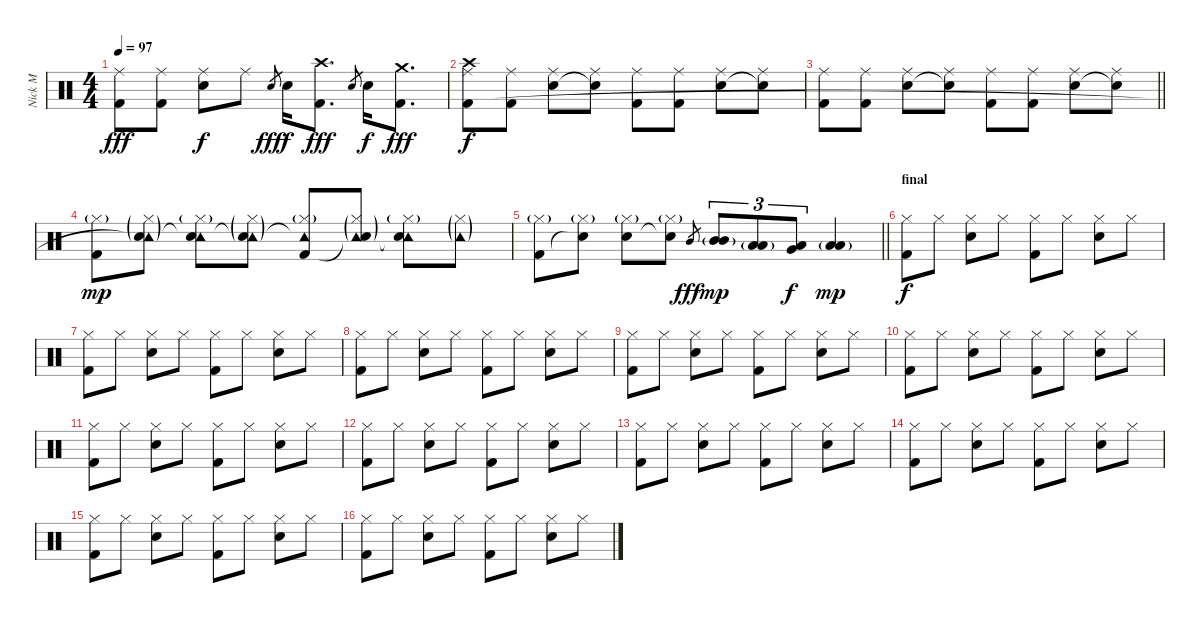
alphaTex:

\track ("Nick M" "Nick M") {instrument percussion}
\staff {score}
\articulation defaults
\ts (4 4)
\tempo 97
\clef neutral
\ks c
("Ride (middle)" "Kick (hit) 2").8{dy fff} ("Ride (middle)" "Kick (hit) 2").8 ("Ride (middle)" "Snare (hit) 2").8{dy f} "Ride (middle)".8 "Snare (hit) 2".8{gr dy fff} "Snare (hit) 2".16{dy f} ("Crash high (hit)" "Kick (hit) 2").8{d dy fff} "Snare (hit) 2".8{gr} "Snare (hit) 2".16{dy f} ("Crash medium (hit)" "Kick (hit) 2").8{d dy fff} |
("Ride (middle)" "Crash high (hit)" "Kick (hit) 2").8{dy f} ("Ride (middle)" "Kick (hit) 2").8 ("Ride (middle)" "Snare (hit) 2").8 ("Ride (middle)" "Snare (hit)"{t}).8 ("Ride (middle)" "Kick (hit) 2").8 ("Ride (middle)" "Kick (hit) 2").8 ("Ride (middle)" "Snare (hit) 2").8 ("Ride (middle)" "Snare (hit)"{t}).8 |
\barLineRight lightlight
("Ride (middle)" "Kick (hit) 2").8 ("Ride (middle)" "Kick (hit) 2").8 ("Ride (middle)" "Snare (hit) 2").8 ("Ride (middle)" "Snare (hit)"{t}).8 ("Ride (middle)" "Kick (hit) 2").8 ("Ride (middle)" "Kick (hit) 2").8 ("Ride (middle)" "Snare (hit) 2").8 ("Ride (middle)" "Snare (hit)"{t}).8 |
("Hi-Hat (closed)"{g} "Kick (hit) 2").8{dy mp} ("Hi-Hat (closed)"{g} "Tambourine (hit)"{g} "Snare (hit)"{t}).8 ("Hi-Hat (closed)"{g} "Tambourine (hit)"{t} "Snare (hit) 2").8 ("Hi-Hat (closed)"{g} "Tambourine (hit)"{g} "Snare (hit)"{t}).8 ("Hi-Hat (closed)"{g} "Tambourine (hit)"{t} "Kick (hit) 2").8 ("Hi-Hat (closed)"{g} "Tambourine (hit)"{g} "Snare (hit)"{t}).8 ("Hi-Hat (closed)"{g} "Tambourine (hit)"{t} "Snare (hit) 2").8 ("Hi-Hat (closed)"{g} "Tambourine (hit)"{g}).8 |
\barLineRight lightlight
("Hi-Hat (closed)"{g} "Kick (hit) 2").8 ("Hi-Hat (closed)"{g} "Snare (hit)"{t}).8 ("Hi-Hat (closed)"{g} "Snare (hit) 2").8 ("Hi-Hat (closed)"{g} "Snare (hit)"{t}).8 "Mid Tom (hit)".8{gr dy fff} ("Mid Tom (hit)" "Mid Tom (hit)"{g}).8{tu (3 2) dy mp} ("Low Tom (hit)" "Low Tom (hit)"{g}).8{tu (3 2)} ("Very Low Tom (hit)" "Low Tom (hit)").8{tu (3 2) dy f} ("Low Floor Tom (hit)" "Low Floor Tom (hit)"{g}).4{dy mp} |
\section ("" "final")
("Hi-Hat (closed)" "Kick (hit) 2").8{dy f} "Hi-Hat (closed)".8 ("Hi-Hat (closed)" "Snare (hit) 2").8 "Hi-Hat (closed)".8 ("Hi-Hat (closed)" "Kick (hit) 2").8 "Hi-Hat (closed)".8 ("Hi-Hat (closed)" "Snare (hit) 2").8 "Hi-Hat (closed)".8 |
("Hi-Hat (closed)" "Kick (hit) 2").8 "Hi-Hat (closed)".8 ("Hi-Hat (closed)" "Snare (hit) 2").8 "Hi-Hat (closed)".8 ("Hi-Hat (closed)" "Kick (hit) 2").8 "Hi-Hat (closed)".8 ("Hi-Hat (closed)" "Snare (hit) 2").8 "Hi-Hat (closed)".8 |
("Hi-Hat (closed)" "Kick (hit) 2").8 "Hi-Hat (closed)".8 ("Hi-Hat (closed)" "Snare (hit) 2").8 "Hi-Hat (closed)".8 ("Hi-Hat (closed)" "Kick (hit) 2").8 "Hi-Hat (closed)".8 ("Hi-Hat (closed)" "Snare (hit) 2").8 "Hi-Hat (closed)".8 |
("Hi-Hat (closed)" "Kick (hit) 2").8 "Hi-Hat (closed)".8 ("Hi-Hat (closed)" "Snare (hit) 2").8 "Hi-Hat (closed)".8 ("Hi-Hat (closed)" "Kick (hit) 2").8 "Hi-Hat (closed)".8 ("Hi-Hat (closed)" "Snare (hit) 2").8 "Hi-Hat (closed)".8 |
("Hi-Hat (closed)" "Kick (hit) 2").8 "Hi-Hat (closed)".8 ("Hi-Hat (closed)" "Snare (hit) 2").8 "Hi-Hat (closed)".8 ("Hi-Hat (closed)" "Kick (hit) 2").8 "Hi-Hat (closed)".8 ("Hi-Hat (closed)" "Snare (hit) 2").8 "Hi-Hat (closed)".8 |
("Hi-Hat (closed)" "Kick (hit) 2").8 "Hi-Hat (closed)".8 ("Hi-Hat (closed)" "Snare (hit) 2").8 "Hi-Hat (closed)".8 ("Hi-Hat (closed)" "Kick (hit) 2").8 "Hi-Hat (closed)".8 ("Hi-Hat (closed)" "Snare (hit) 2").8 "Hi-Hat (closed)".8 |
("Hi-Hat (closed)" "Kick (hit) 2").8 "Hi-Hat (closed)".8 ("Hi-Hat (closed)" "Snare (hit) 2").8 "Hi-Hat (closed)".8 ("Hi-Hat (closed)" "Kick (hit) 2").8 "Hi-Hat (closed)".8 ("Hi-Hat (closed)" "Snare (hit) 2").8 "Hi-Hat (closed)".8 |
("Hi-Hat (closed)" "Kick (hit) 2").8 "Hi-Hat (closed)".8 ("Hi-Hat (closed)" "Snare (hit) 2").8 "Hi-Hat (closed)".8 ("Hi-Hat (closed)" "Kick (hit) 2").8 "Hi-Hat (closed)".8 ("Hi-Hat (closed)" "Snare (hit) 2").8 "Hi-Hat (closed)".8 |
("Hi-Hat (closed)" "Kick (hit) 2").8 "Hi-Hat (closed)".8 ("Hi-Hat (closed)" "Snare (hit) 2").8 "Hi-Hat (closed)".8 ("Hi-Hat (closed)" "Kick (hit) 2").8 "Hi-Hat (closed)".8 ("Hi-Hat (closed)" "Snare (hit) 2").8 "Hi-Hat (closed)".8 |
("Hi-Hat (closed)" "Kick (hit) 2").8 "Hi-Hat (closed)".8 ("Hi-Hat (closed)" "Snare (hit) 2").8 "Hi-Hat (closed)".8 ("Hi-Hat (closed)" "Kick (hit) 2").8 "Hi-Hat (closed)".8 ("Hi-Hat (closed)" "Snare (hit) 2").8 "Hi-Hat (closed)".8 |
("Hi-Hat (closed)" "Kick (hit) 2").8 "Hi-Hat (closed)".8 ("Hi-Hat (closed)" "Snare (hit) 2").8 "Hi-Hat (closed)".8 ("Hi-Hat (closed)" "Kick (hit) 2").8 "Hi-Hat (closed)".8 ("Hi-Hat (closed)" "Snare (hit) 2").8 "Hi-Hat (closed)".8
